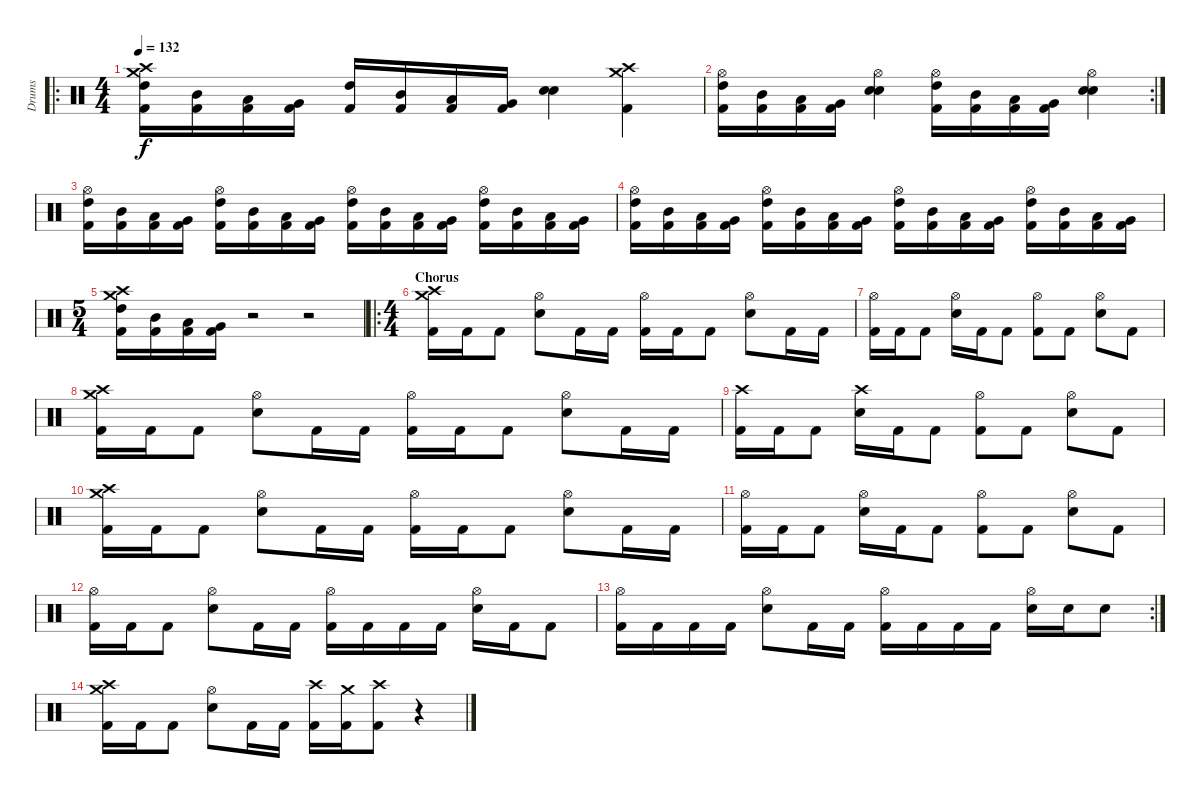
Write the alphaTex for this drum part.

\track ("Drums" "Drums") {instrument percussion}
\staff {score}
\articulation defaults
\ro
\ts (4 4)
\tempo 132
\clef neutral
\ks c
("Crash high (hit)" "Crash medium (hit)" "High Tom (hit)" "Kick (hit) 2").16{dy f} ("Mid Tom (hit)" "Kick (hit) 2").16 ("Low Tom (hit)" "Kick (hit) 2").16 ("Very Low Tom (hit)" "Kick (hit) 2").16 ("High Tom (hit)" "Kick (hit) 2").16 ("Mid Tom (hit)" "Kick (hit) 2").16 ("Low Tom (hit)" "Kick (hit) 2").16 ("Very Low Tom (hit)" "Kick (hit) 2").16 ("Electric Snare (hit)" "Electric Snare (hit)").4 ("Crash high (hit)" "Crash medium (hit)" "Kick (hit) 2").4 |
\rc 2
("High Tom (hit)" "Hi-Hat (open)" "Kick (hit) 2").16 ("Mid Tom (hit)" "Kick (hit) 2").16 ("Low Tom (hit)" "Kick (hit) 2").16 ("Very Low Tom (hit)" "Kick (hit) 2").16 ("Hi-Hat (open)" "Electric Snare (hit)" "Electric Snare (hit)").4 ("High Tom (hit)" "Hi-Hat (open)" "Kick (hit) 2").16 ("Mid Tom (hit)" "Kick (hit) 2").16 ("Low Tom (hit)" "Kick (hit) 2").16 ("Very Low Tom (hit)" "Kick (hit) 2").16 ("Hi-Hat (open)" "Electric Snare (hit)" "Electric Snare (hit)").4 |
("High Tom (hit)" "Hi-Hat (open)" "Kick (hit) 2").16 ("Mid Tom (hit)" "Kick (hit) 2").16 ("Low Tom (hit)" "Kick (hit) 2").16 ("Very Low Tom (hit)" "Kick (hit) 2").16 ("High Tom (hit)" "Hi-Hat (open)" "Kick (hit) 2").16 ("Mid Tom (hit)" "Kick (hit) 2").16 ("Low Tom (hit)" "Kick (hit) 2").16 ("Very Low Tom (hit)" "Kick (hit) 2").16 ("High Tom (hit)" "Hi-Hat (open)" "Kick (hit) 2").16 ("Mid Tom (hit)" "Kick (hit) 2").16 ("Low Tom (hit)" "Kick (hit) 2").16 ("Very Low Tom (hit)" "Kick (hit) 2").16 ("High Tom (hit)" "Hi-Hat (open)" "Kick (hit) 2").16 ("Mid Tom (hit)" "Kick (hit) 2").16 ("Low Tom (hit)" "Kick (hit) 2").16 ("Very Low Tom (hit)" "Kick (hit) 2").16 |
("High Tom (hit)" "Hi-Hat (open)" "Kick (hit) 2").16 ("Mid Tom (hit)" "Kick (hit) 2").16 ("Low Tom (hit)" "Kick (hit) 2").16 ("Very Low Tom (hit)" "Kick (hit) 2").16 ("High Tom (hit)" "Hi-Hat (open)" "Kick (hit) 2").16 ("Mid Tom (hit)" "Kick (hit) 2").16 ("Low Tom (hit)" "Kick (hit) 2").16 ("Very Low Tom (hit)" "Kick (hit) 2").16 ("High Tom (hit)" "Hi-Hat (open)" "Kick (hit) 2").16 ("Mid Tom (hit)" "Kick (hit) 2").16 ("Low Tom (hit)" "Kick (hit) 2").16 ("Very Low Tom (hit)" "Kick (hit) 2").16 ("High Tom (hit)" "Hi-Hat (open)" "Kick (hit) 2").16 ("Mid Tom (hit)" "Kick (hit) 2").16 ("Low Tom (hit)" "Kick (hit) 2").16 ("Very Low Tom (hit)" "Kick (hit) 2").16 |
\ts (5 4)
("Crash high (hit)" "Crash medium (hit)" "High Tom (hit)" "Kick (hit) 2").16 ("Mid Tom (hit)" "Kick (hit) 2").16 ("Low Tom (hit)" "Kick (hit) 2").16 ("Very Low Tom (hit)" "Kick (hit) 2").16 r.2 r.2 |
\ro
\ts (4 4)
\section ("" "Chorus")
("Crash high (hit)" "Crash medium (hit)" "Kick (hit) 2").16 "Kick (hit) 2".16 "Kick (hit) 2".8 ("Hi-Hat (open)" "Electric Snare (hit)").8 "Kick (hit) 2".16 "Kick (hit) 2".16 ("Hi-Hat (open)" "Kick (hit) 2").16 "Kick (hit) 2".16 "Kick (hit) 2".8 ("Hi-Hat (open)" "Electric Snare (hit)").8 "Kick (hit) 2".16 "Kick (hit) 2".16 |
("Hi-Hat (open)" "Kick (hit) 2").16 "Kick (hit) 2".16 "Kick (hit) 2".8 ("Hi-Hat (open)" "Electric Snare (hit)").16 "Kick (hit) 2".16 "Kick (hit) 2".8 ("Hi-Hat (open)" "Kick (hit) 2").8 "Kick (hit) 2".8 ("Hi-Hat (open)" "Electric Snare (hit)").8 "Kick (hit) 2".8 |
("Crash high (hit)" "Crash medium (hit)" "Kick (hit) 2").16 "Kick (hit) 2".16 "Kick (hit) 2".8 ("Hi-Hat (open)" "Electric Snare (hit)").8 "Kick (hit) 2".16 "Kick (hit) 2".16 ("Hi-Hat (open)" "Kick (hit) 2").16 "Kick (hit) 2".16 "Kick (hit) 2".8 ("Hi-Hat (open)" "Electric Snare (hit)").8 "Kick (hit) 2".16 "Kick (hit) 2".16 |
("Crash high (hit)" "Kick (hit) 2").16 "Kick (hit) 2".16 "Kick (hit) 2".8 ("Crash high (hit)" "Electric Snare (hit)").16 "Kick (hit) 2".16 "Kick (hit) 2".8 ("Hi-Hat (open)" "Kick (hit) 2").8 "Kick (hit) 2".8 ("Hi-Hat (open)" "Electric Snare (hit)").8 "Kick (hit) 2".8 |
("Crash high (hit)" "Crash medium (hit)" "Kick (hit) 2").16 "Kick (hit) 2".16 "Kick (hit) 2".8 ("Hi-Hat (open)" "Electric Snare (hit)").8 "Kick (hit) 2".16 "Kick (hit) 2".16 ("Hi-Hat (open)" "Kick (hit) 2").16 "Kick (hit) 2".16 "Kick (hit) 2".8 ("Hi-Hat (open)" "Electric Snare (hit)").8 "Kick (hit) 2".16 "Kick (hit) 2".16 |
("Hi-Hat (open)" "Kick (hit) 2").16 "Kick (hit) 2".16 "Kick (hit) 2".8 ("Hi-Hat (open)" "Electric Snare (hit)").16 "Kick (hit) 2".16 "Kick (hit) 2".8 ("Hi-Hat (open)" "Kick (hit) 2").8 "Kick (hit) 2".8 ("Hi-Hat (open)" "Electric Snare (hit)").8 "Kick (hit) 2".8 |
("Hi-Hat (open)" "Kick (hit) 2").16 "Kick (hit) 2".16 "Kick (hit) 2".8 ("Hi-Hat (open)" "Electric Snare (hit)").8 "Kick (hit) 2".16 "Kick (hit) 2".16 ("Hi-Hat (open)" "Kick (hit) 2").16 "Kick (hit) 2".16 "Kick (hit) 2".16 "Kick (hit) 2".16 ("Hi-Hat (open)" "Electric Snare (hit)").16 "Kick (hit) 2".16 "Kick (hit) 2".8 |
\rc 2
("Hi-Hat (open)" "Kick (hit) 2").16 "Kick (hit) 2".16 "Kick (hit) 2".16 "Kick (hit) 2".16 ("Hi-Hat (open)" "Electric Snare (hit)").8 "Kick (hit) 2".16 "Kick (hit) 2".16 ("Hi-Hat (open)" "Kick (hit) 2").16 "Kick (hit) 2".16 "Kick (hit) 2".16 "Kick (hit) 2".16 ("Hi-Hat (open)" "Electric Snare (hit)").16 "Electric Snare (hit)".16 "Electric Snare (hit)".8 |
("Crash high (hit)" "Crash medium (hit)" "Kick (hit) 2").16 "Kick (hit) 2".16 "Kick (hit) 2".8 ("Hi-Hat (open)" "Electric Snare (hit)").8 "Kick (hit) 2".16 "Kick (hit) 2".16 ("Crash high (hit)" "Kick (hit) 2").16 ("Crash medium (hit)" "Kick (hit) 2").16 ("Crash high (hit)" "Kick (hit) 2").8 r.4
